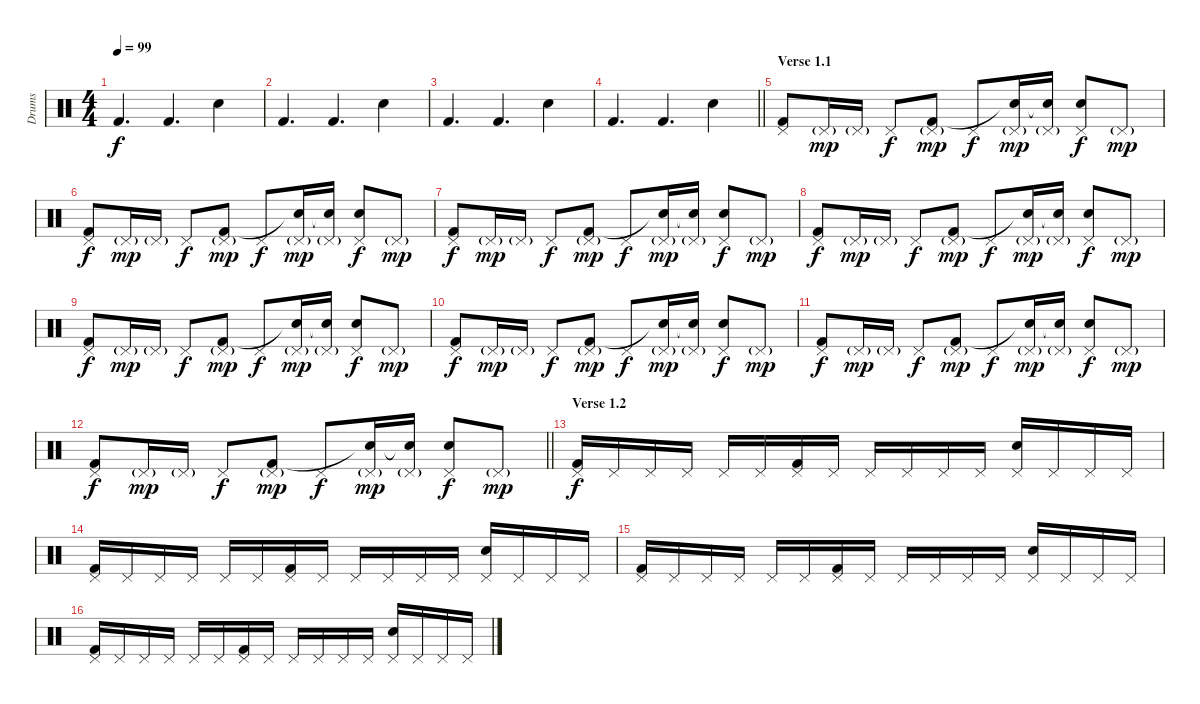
\track ("Drums" "Drums") {instrument percussion}
\staff {score}
\articulation defaults
\ts (4 4)
\tempo 99
\clef neutral
\ks c "Kick (hit) 2".4{d dy f} "Kick (hit) 2".4{d} "Snare (hit) 2".4
|
"Kick (hit) 2".4{d} "Kick (hit) 2".4{d} "Snare (hit) 2".4 |
"Kick (hit) 2".4{d} "Kick (hit) 2".4{d} "Snare (hit) 2".4 |
\barLineRight lightlight "Kick (hit) 2".4{d} "Kick (hit) 2".4{d} "Snare (hit) 2".4
|
\section ("" "Verse 1.1")
("Pedal Hi-Hat (hit)" "Kick (hit) 2").8 "Pedal Hi-Hat (hit)"{g}.16{dy mp} "Pedal Hi-Hat (hit)"{g}.16 "Pedal Hi-Hat (hit)".8{dy f} ("Pedal Hi-Hat (hit)"{g} "Kick (hit) 2").8{dy mp} "Pedal Hi-Hat (hit)".8{dy f} ("Pedal Hi-Hat (hit)"{g} "Snare (hit)"{t}).16{dy mp} ("Pedal Hi-Hat (hit)"{g} "Snare (hit)"{t}).16 ("Pedal Hi-Hat (hit)" "Snare (hit) 2").8{dy f} "Pedal Hi-Hat (hit)"{g}.8{dy mp} |
("Pedal Hi-Hat (hit)" "Kick (hit) 2").8{dy f} "Pedal Hi-Hat (hit)"{g}.16{dy mp} "Pedal Hi-Hat (hit)"{g}.16 "Pedal Hi-Hat (hit)".8{dy f} ("Pedal Hi-Hat (hit)"{g} "Kick (hit) 2").8{dy mp} "Pedal Hi-Hat (hit)".8{dy f} ("Pedal Hi-Hat (hit)"{g} "Snare (hit)"{t}).16{dy mp} ("Pedal Hi-Hat (hit)"{g} "Snare (hit)"{t}).16 ("Pedal Hi-Hat (hit)" "Snare (hit) 2").8{dy f} "Pedal Hi-Hat (hit)"{g}.8{dy mp} |
("Pedal Hi-Hat (hit)" "Kick (hit) 2").8{dy f} "Pedal Hi-Hat (hit)"{g}.16{dy mp} "Pedal Hi-Hat (hit)"{g}.16 "Pedal Hi-Hat (hit)".8{dy f} ("Pedal Hi-Hat (hit)"{g} "Kick (hit) 2").8{dy mp} "Pedal Hi-Hat (hit)".8{dy f} ("Pedal Hi-Hat (hit)"{g} "Snare (hit)"{t}).16{dy mp} ("Pedal Hi-Hat (hit)"{g} "Snare (hit)"{t}).16 ("Pedal Hi-Hat (hit)" "Snare (hit) 2").8{dy f} "Pedal Hi-Hat (hit)"{g}.8{dy mp} |
("Pedal Hi-Hat (hit)" "Kick (hit) 2").8{dy f} "Pedal Hi-Hat (hit)"{g}.16{dy mp} "Pedal Hi-Hat (hit)"{g}.16 "Pedal Hi-Hat (hit)".8{dy f} ("Pedal Hi-Hat (hit)"{g} "Kick (hit) 2").8{dy mp} "Pedal Hi-Hat (hit)".8{dy f} ("Pedal Hi-Hat (hit)"{g} "Snare (hit)"{t}).16{dy mp} ("Pedal Hi-Hat (hit)"{g} "Snare (hit)"{t}).16 ("Pedal Hi-Hat (hit)" "Snare (hit) 2").8{dy f} "Pedal Hi-Hat (hit)"{g}.8{dy mp} |
("Pedal Hi-Hat (hit)" "Kick (hit) 2").8{dy f} "Pedal Hi-Hat (hit)"{g}.16{dy mp} "Pedal Hi-Hat (hit)"{g}.16 "Pedal Hi-Hat (hit)".8{dy f} ("Pedal Hi-Hat (hit)"{g} "Kick (hit) 2").8{dy mp} "Pedal Hi-Hat (hit)".8{dy f} ("Pedal Hi-Hat (hit)"{g} "Snare (hit)"{t}).16{dy mp} ("Pedal Hi-Hat (hit)"{g} "Snare (hit)"{t}).16 ("Pedal Hi-Hat (hit)" "Snare (hit) 2").8{dy f} "Pedal Hi-Hat (hit)"{g}.8{dy mp} |
("Pedal Hi-Hat (hit)" "Kick (hit) 2").8{dy f} "Pedal Hi-Hat (hit)"{g}.16{dy mp} "Pedal Hi-Hat (hit)"{g}.16 "Pedal Hi-Hat (hit)".8{dy f} ("Pedal Hi-Hat (hit)"{g} "Kick (hit) 2").8{dy mp} "Pedal Hi-Hat (hit)".8{dy f} ("Pedal Hi-Hat (hit)"{g} "Snare (hit)"{t}).16{dy mp} ("Pedal Hi-Hat (hit)"{g} "Snare (hit)"{t}).16 ("Pedal Hi-Hat (hit)" "Snare (hit) 2").8{dy f} "Pedal Hi-Hat (hit)"{g}.8{dy mp} |
("Pedal Hi-Hat (hit)" "Kick (hit) 2").8{dy f} "Pedal Hi-Hat (hit)"{g}.16{dy mp} "Pedal Hi-Hat (hit)"{g}.16 "Pedal Hi-Hat (hit)".8{dy f} ("Pedal Hi-Hat (hit)"{g} "Kick (hit) 2").8{dy mp} "Pedal Hi-Hat (hit)".8{dy f} ("Pedal Hi-Hat (hit)"{g} "Snare (hit)"{t}).16{dy mp} ("Pedal Hi-Hat (hit)"{g} "Snare (hit)"{t}).16 ("Pedal Hi-Hat (hit)" "Snare (hit) 2").8{dy f} "Pedal Hi-Hat (hit)"{g}.8{dy mp} |
\barLineRight lightlight
("Pedal Hi-Hat (hit)" "Kick (hit) 2").8{dy f} "Pedal Hi-Hat (hit)"{g}.16{dy mp} "Pedal Hi-Hat (hit)"{g}.16 "Pedal Hi-Hat (hit)".8{dy f} ("Pedal Hi-Hat (hit)"{g} "Kick (hit) 2").8{dy mp} "Pedal Hi-Hat (hit)".8{dy f} ("Pedal Hi-Hat (hit)"{g} "Snare (hit)"{t}).16{dy mp} ("Pedal Hi-Hat (hit)"{g} "Snare (hit)"{t}).16 ("Pedal Hi-Hat (hit)" "Snare (hit) 2").8{dy f} "Pedal Hi-Hat (hit)"{g}.8{dy mp} |
\section ("" "Verse 1.2")
("Pedal Hi-Hat (hit)" "Kick (hit) 2").16{dy f} "Pedal Hi-Hat (hit)".16 "Pedal Hi-Hat (hit)".16 "Pedal Hi-Hat (hit)".16 "Pedal Hi-Hat (hit)".16 "Pedal Hi-Hat (hit)".16 ("Pedal Hi-Hat (hit)" "Kick (hit) 2").16 "Pedal Hi-Hat (hit)".16 "Pedal Hi-Hat (hit)".16 "Pedal Hi-Hat (hit)".16 "Pedal Hi-Hat (hit)".16 "Pedal Hi-Hat (hit)".16 ("Pedal Hi-Hat (hit)" "Snare (hit) 2").16 "Pedal Hi-Hat (hit)".16 "Pedal Hi-Hat (hit)".16 "Pedal Hi-Hat (hit)".16 |
("Pedal Hi-Hat (hit)" "Kick (hit) 2").16 "Pedal Hi-Hat (hit)".16 "Pedal Hi-Hat (hit)".16 "Pedal Hi-Hat (hit)".16 "Pedal Hi-Hat (hit)".16 "Pedal Hi-Hat (hit)".16 ("Pedal Hi-Hat (hit)" "Kick (hit) 2").16 "Pedal Hi-Hat (hit)".16 "Pedal Hi-Hat (hit)".16 "Pedal Hi-Hat (hit)".16 "Pedal Hi-Hat (hit)".16 "Pedal Hi-Hat (hit)".16 ("Pedal Hi-Hat (hit)" "Snare (hit) 2").16 "Pedal Hi-Hat (hit)".16 "Pedal Hi-Hat (hit)".16 "Pedal Hi-Hat (hit)".16 |
("Pedal Hi-Hat (hit)" "Kick (hit) 2").16 "Pedal Hi-Hat (hit)".16 "Pedal Hi-Hat (hit)".16 "Pedal Hi-Hat (hit)".16 "Pedal Hi-Hat (hit)".16 "Pedal Hi-Hat (hit)".16 ("Pedal Hi-Hat (hit)" "Kick (hit) 2").16 "Pedal Hi-Hat (hit)".16 "Pedal Hi-Hat (hit)".16 "Pedal Hi-Hat (hit)".16 "Pedal Hi-Hat (hit)".16 "Pedal Hi-Hat (hit)".16 ("Pedal Hi-Hat (hit)" "Snare (hit) 2").16 "Pedal Hi-Hat (hit)".16 "Pedal Hi-Hat (hit)".16 "Pedal Hi-Hat (hit)".16 |
("Pedal Hi-Hat (hit)" "Kick (hit) 2").16 "Pedal Hi-Hat (hit)".16 "Pedal Hi-Hat (hit)".16 "Pedal Hi-Hat (hit)".16 "Pedal Hi-Hat (hit)".16 "Pedal Hi-Hat (hit)".16 ("Pedal Hi-Hat (hit)" "Kick (hit) 2").16 "Pedal Hi-Hat (hit)".16 "Pedal Hi-Hat (hit)".16 "Pedal Hi-Hat (hit)".16 "Pedal Hi-Hat (hit)".16 "Pedal Hi-Hat (hit)".16 ("Pedal Hi-Hat (hit)" "Snare (hit) 2").16 "Pedal Hi-Hat (hit)".16 "Pedal Hi-Hat (hit)".16 "Pedal Hi-Hat (hit)".16
